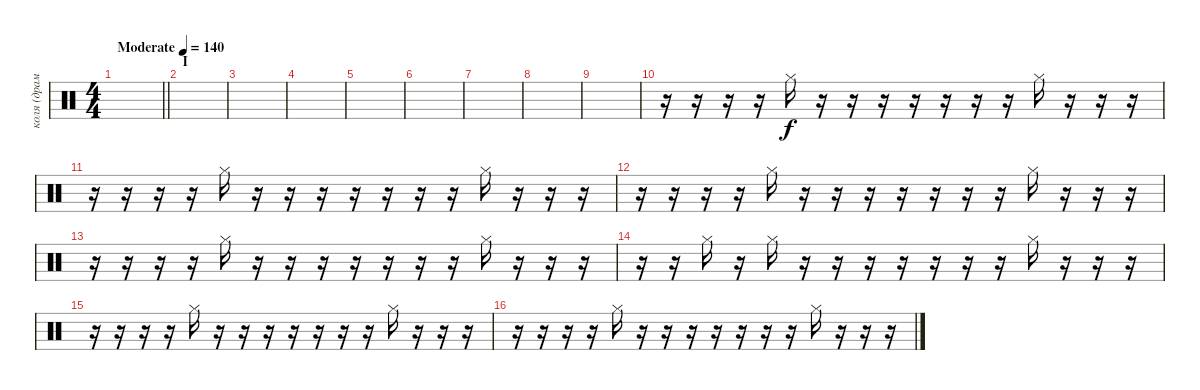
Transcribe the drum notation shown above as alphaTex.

\track ("коля (драммы)" "коля (драм") {instrument percussion}
\staff {score}
\articulation defaults
\ts (4 4)
\tempo (140 "Moderate")
\clef neutral
\barLineRight lightlight
\ks c
|
\section ("" "I")
|
|
|
|
|
|
|
|
r.16 r.16 r.16 r.16 "Hi-Hat (closed)".16 r.16 r.16 r.16 r.16 r.16 r.16 r.16 "Hi-Hat (closed)".16 r.16 r.16 r.16 |
r.16 r.16 r.16 r.16 "Hi-Hat (closed)".16 r.16 r.16 r.16 r.16 r.16 r.16 r.16 "Hi-Hat (closed)".16 r.16 r.16 r.16 |
r.16 r.16 r.16 r.16 "Hi-Hat (closed)".16 r.16 r.16 r.16 r.16 r.16 r.16 r.16 "Hi-Hat (closed)".16 r.16 r.16 r.16 |
r.16 r.16 r.16 r.16 "Hi-Hat (closed)".16 r.16 r.16 r.16 r.16 r.16 r.16 r.16 "Hi-Hat (closed)".16 r.16 r.16 r.16 |
r.16 r.16 "Hi-Hat (closed)".16 r.16 "Hi-Hat (closed)".16 r.16 r.16 r.16 r.16 r.16 r.16 r.16 "Hi-Hat (closed)".16 r.16 r.16 r.16 |
r.16 r.16 r.16 r.16 "Hi-Hat (closed)".16 r.16 r.16 r.16 r.16 r.16 r.16 r.16 "Hi-Hat (closed)".16 r.16 r.16 r.16 |
r.16 r.16 r.16 r.16 "Hi-Hat (closed)".16 r.16 r.16 r.16 r.16 r.16 r.16 r.16 "Hi-Hat (closed)".16 r.16 r.16 r.16
